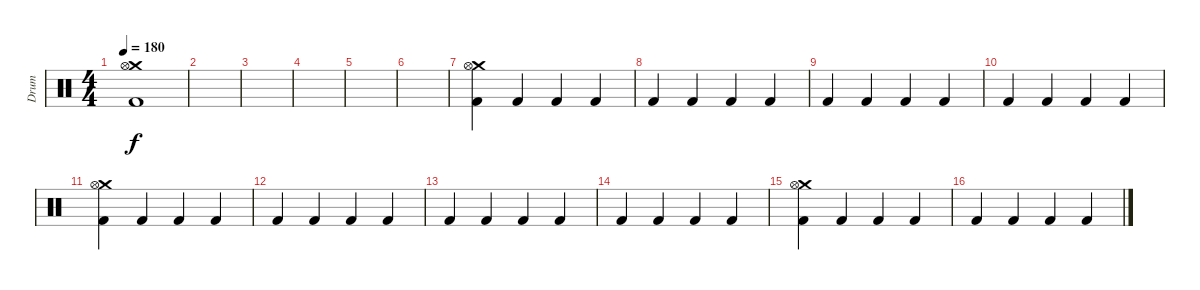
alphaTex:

\track ("Drum" "Drum") {instrument percussion}
\staff {score}
\articulation defaults
\ts (4 4)
\tempo 180
\clef neutral
\ks c
("Crash medium (hit)" "Hi-Hat (open)" "Kick (hit) 2").1{dy f} |
|
|
|
|
|
("Crash medium (hit)" "Hi-Hat (open)" "Kick (hit) 2").4 "Kick (hit) 2".4 "Kick (hit) 2".4 "Kick (hit) 2".4 |
"Kick (hit) 2".4 "Kick (hit) 2".4 "Kick (hit) 2".4 "Kick (hit) 2".4 |
"Kick (hit) 2".4 "Kick (hit) 2".4 "Kick (hit) 2".4 "Kick (hit) 2".4 |
"Kick (hit) 2".4 "Kick (hit) 2".4 "Kick (hit) 2".4 "Kick (hit) 2".4 |
("Crash medium (hit)" "Hi-Hat (open)" "Kick (hit) 2").4 "Kick (hit) 2".4 "Kick (hit) 2".4 "Kick (hit) 2".4 |
"Kick (hit) 2".4 "Kick (hit) 2".4 "Kick (hit) 2".4 "Kick (hit) 2".4 |
"Kick (hit) 2".4 "Kick (hit) 2".4 "Kick (hit) 2".4 "Kick (hit) 2".4 |
"Kick (hit) 2".4 "Kick (hit) 2".4 "Kick (hit) 2".4 "Kick (hit) 2".4 |
("Crash medium (hit)" "Hi-Hat (open)" "Kick (hit) 2").4 "Kick (hit) 2".4 "Kick (hit) 2".4 "Kick (hit) 2".4 |
"Kick (hit) 2".4 "Kick (hit) 2".4 "Kick (hit) 2".4 "Kick (hit) 2".4
